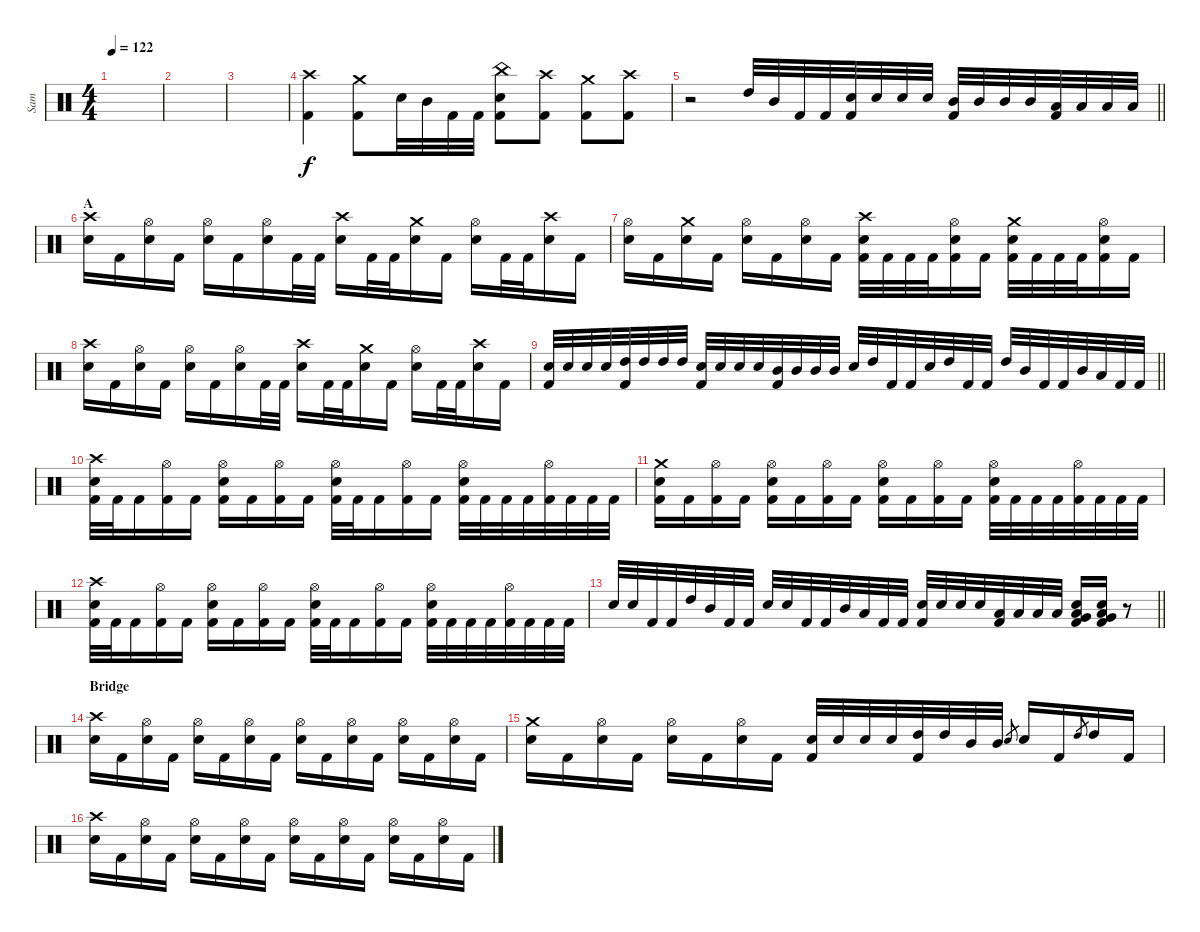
\track ("Sam" "Sam") {solo instrument percussion}
\staff {score}
\articulation defaults
\ts (4 4)
\tempo 122
\clef neutral
\ks c
|
|
|
("Crash high (hit)" "Kick (hit) 2").4 ("Crash medium (hit)" "Kick (hit) 2").8 "Electric Snare (hit)".32 "Mid Tom (hit)".32 "Kick (hit) 2".32 "Kick (hit) 2".32 ("China (hit)" "Electric Snare (hit)" "Kick (hit) 2").8 ("Crash high (hit)" "Kick (hit) 2").8 ("Crash medium (hit)" "Kick (hit) 2").8 ("Crash high (hit)" "Kick (hit) 2").8 |
\barLineRight lightlight
r.2 "High Tom (hit)".32 "Mid Tom (hit)".32 "Kick (hit) 2".32 "Kick (hit) 2".32 ("Electric Snare (hit)" "Kick (hit) 2").32 "Electric Snare (hit)".32 "Electric Snare (hit)".32 "Electric Snare (hit)".32 ("Mid Tom (hit)" "Kick (hit) 2").32 "Mid Tom (hit)".32 "Mid Tom (hit)".32 "Mid Tom (hit)".32 ("Low Tom (hit)" "Kick (hit) 2").32 "Low Tom (hit)".32 "Low Tom (hit)".32 "Low Tom (hit)".32 |
\section ("" "A")
("Crash high (hit)" "Electric Snare (hit)").16 "Kick (hit) 2".16 ("Hi-Hat (open)" "Electric Snare (hit)").16 "Kick (hit) 2".16 ("Hi-Hat (open)" "Electric Snare (hit)").16 "Kick (hit) 2".16 ("Hi-Hat (open)" "Electric Snare (hit)").16 "Kick (hit) 2".32 "Kick (hit) 2".32 ("Crash high (hit)" "Electric Snare (hit)").16 "Kick (hit) 2".32 "Kick (hit) 2".32 ("Crash medium (hit)" "Electric Snare (hit)").16 "Kick (hit) 2".16 ("Hi-Hat (open)" "Electric Snare (hit)").16 "Kick (hit) 2".32 "Kick (hit) 2".32 ("Crash high (hit)" "Electric Snare (hit)").16 "Kick (hit) 2".16 |
("Hi-Hat (open)" "Electric Snare (hit)").16 "Kick (hit) 2".16 ("Crash medium (hit)" "Electric Snare (hit)").16 "Kick (hit) 2".16 ("Hi-Hat (open)" "Electric Snare (hit)").16 "Kick (hit) 2".16 ("Hi-Hat (open)" "Electric Snare (hit)").16 "Kick (hit) 2".16 ("Crash high (hit)" "Electric Snare (hit)" "Kick (hit) 2").32 "Kick (hit) 2".32 "Kick (hit) 2".32 "Kick (hit) 2".32 ("Hi-Hat (open)" "Electric Snare (hit)" "Kick (hit) 2").16 "Kick (hit) 2".16 ("Crash medium (hit)" "Electric Snare (hit)" "Kick (hit) 2").32 "Kick (hit) 2".32 "Kick (hit) 2".32 "Kick (hit) 2".32 ("Hi-Hat (open)" "Electric Snare (hit)" "Kick (hit) 2").16 "Kick (hit) 2".16 |
("Crash high (hit)" "Electric Snare (hit)").16 "Kick (hit) 2".16 ("Hi-Hat (open)" "Electric Snare (hit)").16 "Kick (hit) 2".16 ("Hi-Hat (open)" "Electric Snare (hit)").16 "Kick (hit) 2".16 ("Hi-Hat (open)" "Electric Snare (hit)").16 "Kick (hit) 2".32 "Kick (hit) 2".32 ("Crash high (hit)" "Electric Snare (hit)").16 "Kick (hit) 2".32 "Kick (hit) 2".32 ("Crash medium (hit)" "Electric Snare (hit)").16 "Kick (hit) 2".16 ("Hi-Hat (open)" "Electric Snare (hit)").16 "Kick (hit) 2".32 "Kick (hit) 2".32 ("Crash high (hit)" "Electric Snare (hit)").16 "Kick (hit) 2".16 |
\barLineRight lightlight
("Electric Snare (hit)" "Kick (hit) 2").32 "Electric Snare (hit)".32 "Electric Snare (hit)".32 "Electric Snare (hit)".32 ("High Tom (hit)" "Kick (hit) 2").32 "High Tom (hit)".32 "High Tom (hit)".32 "High Tom (hit)".32 ("Electric Snare (hit)" "Kick (hit) 2").32 "Electric Snare (hit)".32 "Electric Snare (hit)".32 "Electric Snare (hit)".32 ("Mid Tom (hit)" "Kick (hit) 2").32 "Mid Tom (hit)".32 "Mid Tom (hit)".32 "Mid Tom (hit)".32 "Electric Snare (hit)".32 "High Tom (hit)".32 "Kick (hit) 2".32 "Kick (hit) 2".32 "Electric Snare (hit)".32 "High Tom (hit)".32 "Kick (hit) 2".32 "Kick (hit) 2".32 "High Tom (hit)".32 "Mid Tom (hit)".32 "Kick (hit) 2".32 "Kick (hit) 2".32 "Mid Tom (hit)".32 "Low Tom (hit)".32 "Kick (hit) 2".32 "Kick (hit) 2".32 |
\section ("" " ")
("Crash high (hit)" "Electric Snare (hit)" "Kick (hit) 2").32 "Kick (hit) 2".32 "Kick (hit) 2".16 ("Hi-Hat (open)" "Kick (hit) 2").16 "Kick (hit) 2".16 ("Hi-Hat (open)" "Electric Snare (hit)" "Kick (hit) 2").16 "Kick (hit) 2".16 ("Hi-Hat (open)" "Kick (hit) 2").16 "Kick (hit) 2".16 ("Hi-Hat (open)" "Electric Snare (hit)" "Kick (hit) 2").32 "Kick (hit) 2".32 "Kick (hit) 2".16 ("Hi-Hat (open)" "Kick (hit) 2").16 "Kick (hit) 2".16 ("Hi-Hat (open)" "Electric Snare (hit)" "Kick (hit) 2").32 "Kick (hit) 2".32 "Kick (hit) 2".32 "Kick (hit) 2".32 ("Hi-Hat (open)" "Kick (hit) 2").32 "Kick (hit) 2".32 "Kick (hit) 2".32 "Kick (hit) 2".32 |
("Crash medium (hit)" "Electric Snare (hit)" "Kick (hit) 2").16 "Kick (hit) 2".16 ("Hi-Hat (open)" "Kick (hit) 2").16 "Kick (hit) 2".16 ("Hi-Hat (open)" "Electric Snare (hit)" "Kick (hit) 2").16 "Kick (hit) 2".16 ("Hi-Hat (open)" "Kick (hit) 2").16 "Kick (hit) 2".16 ("Hi-Hat (open)" "Electric Snare (hit)" "Kick (hit) 2").16 "Kick (hit) 2".16 ("Hi-Hat (open)" "Kick (hit) 2").16 "Kick (hit) 2".16 ("Hi-Hat (open)" "Electric Snare (hit)" "Kick (hit) 2").32 "Kick (hit) 2".32 "Kick (hit) 2".32 "Kick (hit) 2".32 ("Hi-Hat (open)" "Kick (hit) 2").32 "Kick (hit) 2".32 "Kick (hit) 2".32 "Kick (hit) 2".32 |
("Crash high (hit)" "Electric Snare (hit)" "Kick (hit) 2").32 "Kick (hit) 2".32 "Kick (hit) 2".16 ("Hi-Hat (open)" "Kick (hit) 2").16 "Kick (hit) 2".16 ("Hi-Hat (open)" "Electric Snare (hit)" "Kick (hit) 2").16 "Kick (hit) 2".16 ("Hi-Hat (open)" "Kick (hit) 2").16 "Kick (hit) 2".16 ("Hi-Hat (open)" "Electric Snare (hit)" "Kick (hit) 2").32 "Kick (hit) 2".32 "Kick (hit) 2".16 ("Hi-Hat (open)" "Kick (hit) 2").16 "Kick (hit) 2".16 ("Hi-Hat (open)" "Electric Snare (hit)" "Kick (hit) 2").32 "Kick (hit) 2".32 "Kick (hit) 2".32 "Kick (hit) 2".32 ("Hi-Hat (open)" "Kick (hit) 2").32 "Kick (hit) 2".32 "Kick (hit) 2".32 "Kick (hit) 2".32 |
\barLineRight lightlight "Electric Snare (hit)".32 "Electric Snare (hit)".32 "Kick (hit) 2".32 "Kick (hit) 2".32 "High Tom (hit)".32 "Mid Tom (hit)".32 "Kick (hit) 2".32 "Kick (hit) 2".32 "Electric Snare (hit)".32 "Electric Snare (hit)".32 "Kick (hit) 2".32 "Kick (hit) 2".32 "Mid Tom (hit)".32 "Low Tom (hit)".32 "Kick (hit) 2".32 "Kick (hit) 2".32
("Electric Snare (hit)" "Kick (hit) 2").32 "Electric Snare (hit)".32 "Electric Snare (hit)".32 "Electric Snare (hit)".32 ("Low Tom (hit)" "Kick (hit) 2").32 "Low Tom (hit)".32 "Low Tom (hit)".32 "Low Tom (hit)".32 ("Electric Snare (hit)" "Very Low Tom (hit)" "Low Floor Tom (hit)" "Kick (hit) 2").16 ("Electric Snare (hit)" "Very Low Tom (hit)" "Low Floor Tom (hit)" "Kick (hit) 2").16 r.8 |
\section ("" "Bridge")
("Crash high (hit)" "Electric Snare (hit)").16 "Kick (hit) 2".16 ("Hi-Hat (open)" "Electric Snare (hit)").16 "Kick (hit) 2".16 ("Hi-Hat (open)" "Electric Snare (hit)").16 "Kick (hit) 2".16 ("Hi-Hat (open)" "Electric Snare (hit)").16 "Kick (hit) 2".16 ("Hi-Hat (open)" "Electric Snare (hit)").16 "Kick (hit) 2".16 ("Hi-Hat (open)" "Electric Snare (hit)").16 "Kick (hit) 2".16 ("Hi-Hat (open)" "Electric Snare (hit)").16 "Kick (hit) 2".16 ("Hi-Hat (open)" "Electric Snare (hit)").16 "Kick (hit) 2".16 |
("Crash medium (hit)" "Electric Snare (hit)").16 "Kick (hit) 2".16 ("Hi-Hat (open)" "Electric Snare (hit)").16 "Kick (hit) 2".16 ("Hi-Hat (open)" "Electric Snare (hit)").16 "Kick (hit) 2".16 ("Hi-Hat (open)" "Electric Snare (hit)").16 "Kick (hit) 2".16 ("Electric Snare (hit)" "Kick (hit) 2").32 "Electric Snare (hit)".32 "Electric Snare (hit)".32 "Electric Snare (hit)".32 ("High Tom (hit)" "Kick (hit) 2").32 "High Tom (hit)".32 "Mid Tom (hit)".32 "Mid Tom (hit)".32 "Electric Snare (hit)".8{gr} "Electric Snare (hit)".16 "Kick (hit) 2".16 "High Tom (hit)".8{gr} "High Tom (hit)".16 "Kick (hit) 2".16 |
("Crash high (hit)" "Electric Snare (hit)").16 "Kick (hit) 2".16 ("Hi-Hat (open)" "Electric Snare (hit)").16 "Kick (hit) 2".16 ("Hi-Hat (open)" "Electric Snare (hit)").16 "Kick (hit) 2".16 ("Hi-Hat (open)" "Electric Snare (hit)").16 "Kick (hit) 2".16 ("Hi-Hat (open)" "Electric Snare (hit)").16 "Kick (hit) 2".16 ("Hi-Hat (open)" "Electric Snare (hit)").16 "Kick (hit) 2".16 ("Hi-Hat (open)" "Electric Snare (hit)").16 "Kick (hit) 2".16 ("Hi-Hat (open)" "Electric Snare (hit)").16 "Kick (hit) 2".16
